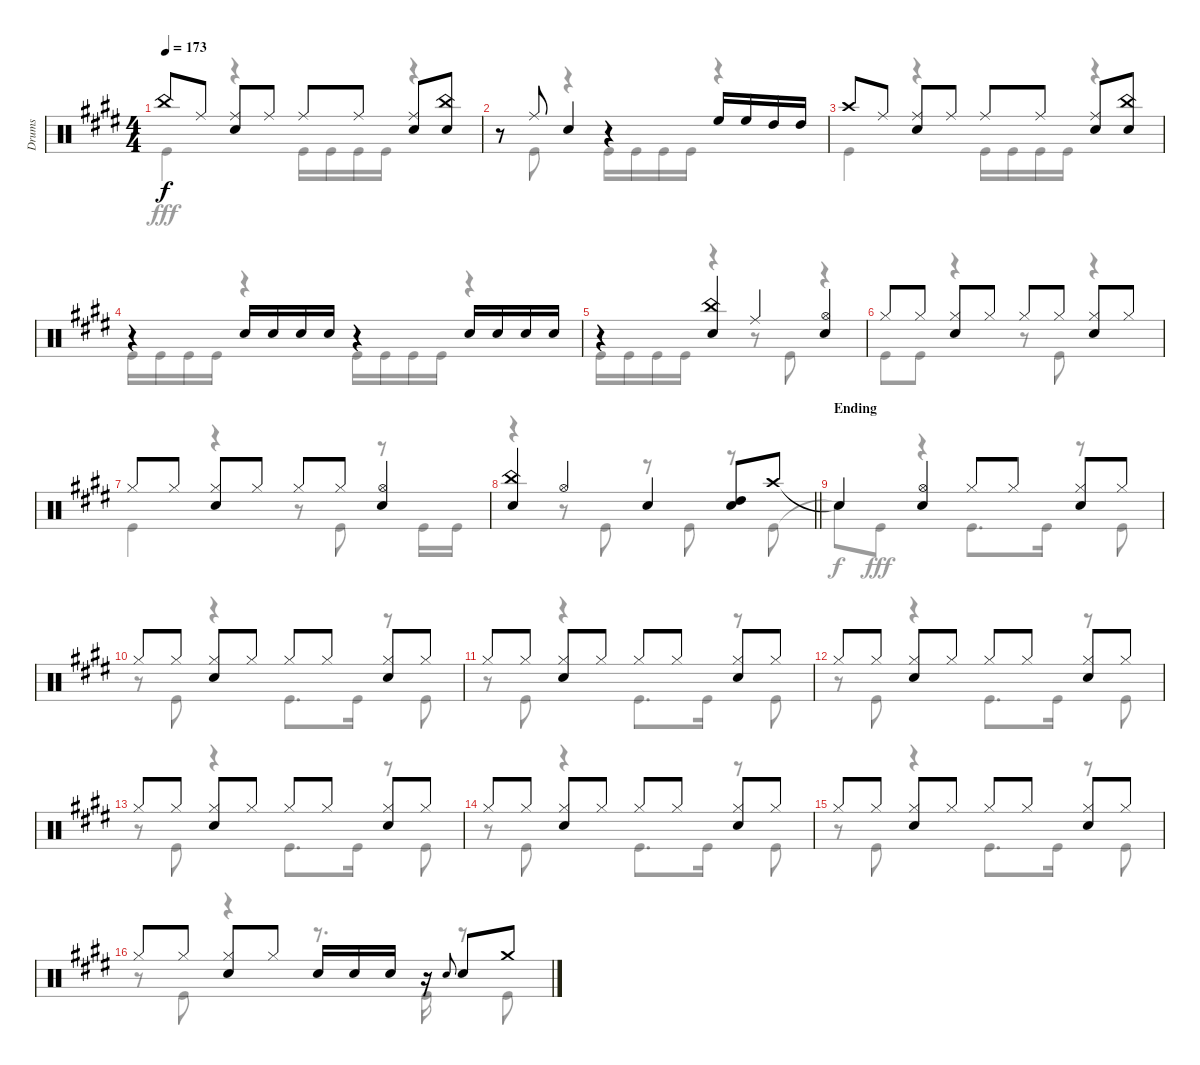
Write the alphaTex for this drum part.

\track ("Drums" "Drums") {instrument percussion}
\staff {score}
\articulation defaults
\voice
\ts (4 4)
\tempo 173
\clef neutral
\ks e "China (hit)".8{dy f} "Ride (middle)".8
("Ride (middle)" "Snare (hit) 2").8 "Ride (middle)".8 "Ride (middle)".8 "Ride (middle)".8 ("Ride (middle)" "Snare (hit) 2").8 ("China (hit)" "Snare (hit) 2").8 |
r.8 "Ride (middle)".8 "Snare (hit) 2".4 r.4 "High Floor Tom (hit)".16 "High Floor Tom (hit)".16 "High Tom (hit)".16 "High Tom (hit)".16 |
"Crash high (hit)".8 "Ride (middle)".8 ("Ride (middle)" "Snare (hit) 2").8 "Ride (middle)".8 "Ride (middle)".8 "Ride (middle)".8 ("Ride (middle)" "Snare (hit) 2").8 ("China (hit)" "Snare (hit) 2").8 |
r.4 "Snare (hit) 2".16 "Snare (hit) 2".16 "Snare (hit) 2".16 "Snare (hit) 2".16 r.4 "Snare (hit) 2".16 "Snare (hit) 2".16 "Snare (hit) 2".16 "Snare (hit) 2".16 |
r.4 ("China (hit)" "Snare (hit) 2").4 "Ride (middle)".4 ("Hi-Hat (open)" "Snare (hit) 2").4 |
"Hi-Hat (closed)".8 "Hi-Hat (closed)".8 ("Hi-Hat (closed)" "Snare (hit) 2").8 "Hi-Hat (closed)".8 "Hi-Hat (closed)".8 "Hi-Hat (closed)".8 ("Hi-Hat (closed)" "Snare (hit) 2").8 "Hi-Hat (closed)".8 |
"Hi-Hat (closed)".8 "Hi-Hat (closed)".8 ("Hi-Hat (closed)" "Snare (hit) 2").8 "Hi-Hat (closed)".8 "Hi-Hat (closed)".8 "Hi-Hat (closed)".8 ("Hi-Hat (open)" "Snare (hit) 2").4 |
\barLineRight lightlight
("China (hit)" "Snare (hit) 2").4 "Hi-Hat (open)".4 "Snare (hit) 2".4 ("High Tom (hit)" "Snare (hit) 2").8 "Crash high (hit)".8 |
\section ("" "Ending")
"Snare (hit)"{t}.4 ("Hi-Hat (open)" "Snare (hit) 2").4 "Hi-Hat (closed)".8 "Hi-Hat (closed)".8 ("Hi-Hat (closed)" "Snare (hit) 2").8 "Hi-Hat (closed)".8 |
"Hi-Hat (closed)".8 "Hi-Hat (closed)".8 ("Hi-Hat (closed)" "Snare (hit) 2").8 "Hi-Hat (closed)".8 "Hi-Hat (closed)".8 "Hi-Hat (closed)".8 ("Hi-Hat (closed)" "Snare (hit) 2").8 "Hi-Hat (closed)".8 |
"Hi-Hat (closed)".8 "Hi-Hat (closed)".8 ("Hi-Hat (closed)" "Snare (hit) 2").8 "Hi-Hat (closed)".8 "Hi-Hat (closed)".8 "Hi-Hat (closed)".8 ("Hi-Hat (closed)" "Snare (hit) 2").8 "Hi-Hat (closed)".8 |
"Hi-Hat (closed)".8 "Hi-Hat (closed)".8 ("Hi-Hat (closed)" "Snare (hit) 2").8 "Hi-Hat (closed)".8 "Hi-Hat (closed)".8 "Hi-Hat (closed)".8 ("Hi-Hat (closed)" "Snare (hit) 2").8 "Hi-Hat (closed)".8 |
"Hi-Hat (closed)".8 "Hi-Hat (closed)".8 ("Hi-Hat (closed)" "Snare (hit) 2").8 "Hi-Hat (closed)".8 "Hi-Hat (closed)".8 "Hi-Hat (closed)".8 ("Hi-Hat (closed)" "Snare (hit) 2").8 "Hi-Hat (closed)".8 |
"Hi-Hat (closed)".8 "Hi-Hat (closed)".8 ("Hi-Hat (closed)" "Snare (hit) 2").8 "Hi-Hat (closed)".8 "Hi-Hat (closed)".8 "Hi-Hat (closed)".8 ("Hi-Hat (closed)" "Snare (hit) 2").8 "Hi-Hat (closed)".8 |
"Hi-Hat (closed)".8 "Hi-Hat (closed)".8 ("Hi-Hat (closed)" "Snare (hit) 2").8 "Hi-Hat (closed)".8 "Hi-Hat (closed)".8 "Hi-Hat (closed)".8 ("Hi-Hat (closed)" "Snare (hit) 2").8 "Hi-Hat (closed)".8 |
"Hi-Hat (closed)".8 "Hi-Hat (closed)".8 ("Hi-Hat (closed)" "Snare (hit) 2").8 "Hi-Hat (closed)".8 "Snare (hit) 2".16 "Snare (hit) 2".16 "Snare (hit) 2".16 r.16 "Snare (hit) 2".8{gr onbeat} "Snare (hit) 2".8 "Crash medium (hit)".8
\voice
\clef neutral
\ottava regular
\simile none
\ks e "Kick (hit)".4{dy fff}
r.4 "Kick (hit)".16 "Kick (hit)".16 "Kick (hit)".16 "Kick (hit)".16 r.4 |
r.8 "Kick (hit)".8 r.4 "Kick (hit)".16 "Kick (hit)".16 "Kick (hit)".16 "Kick (hit)".16 r.4 |
"Kick (hit)".4 r.4 "Kick (hit)".16 "Kick (hit)".16 "Kick (hit)".16 "Kick (hit)".16 r.4 |
"Kick (hit)".16 "Kick (hit)".16 "Kick (hit)".16 "Kick (hit)".16 r.4 "Kick (hit)".16 "Kick (hit)".16 "Kick (hit)".16 "Kick (hit)".16 r.4 |
"Kick (hit)".16 "Kick (hit)".16 "Kick (hit)".16 "Kick (hit)".16 r.4 r.8 "Kick (hit)".8 r.4 |
"Kick (hit)".8 "Kick (hit)".8 r.4 r.8 "Kick (hit)".8 r.4 |
"Kick (hit)".4 r.4 r.8 "Kick (hit)".8 r.8 "Kick (hit)".16 "Kick (hit)".16 |
\barLineRight lightlight
r.4 r.8 "Kick (hit)".8 r.8 "Kick (hit)".8 r.8 "Kick (hit)".8 |
"Snare (hit)"{t}.8{dy f} "Kick (hit)".8{dy fff} r.4 "Kick (hit)".8{d} "Kick (hit)".16 r.8 "Kick (hit)".8 |
r.8 "Kick (hit)".8 r.4 "Kick (hit)".8{d} "Kick (hit)".16 r.8 "Kick (hit)".8 |
r.8 "Kick (hit)".8 r.4 "Kick (hit)".8{d} "Kick (hit)".16 r.8 "Kick (hit)".8 |
r.8 "Kick (hit)".8 r.4 "Kick (hit)".8{d} "Kick (hit)".16 r.8 "Kick (hit)".8 |
r.8 "Kick (hit)".8 r.4 "Kick (hit)".8{d} "Kick (hit)".16 r.8 "Kick (hit)".8 |
r.8 "Kick (hit)".8 r.4 "Kick (hit)".8{d} "Kick (hit)".16 r.8 "Kick (hit)".8 |
r.8 "Kick (hit)".8 r.4 "Kick (hit)".8{d} "Kick (hit)".16 r.8 "Kick (hit)".8 |
r.8 "Kick (hit)".8 r.4 r.8{d} "Kick (hit)".16 r.8 "Kick (hit)".8
